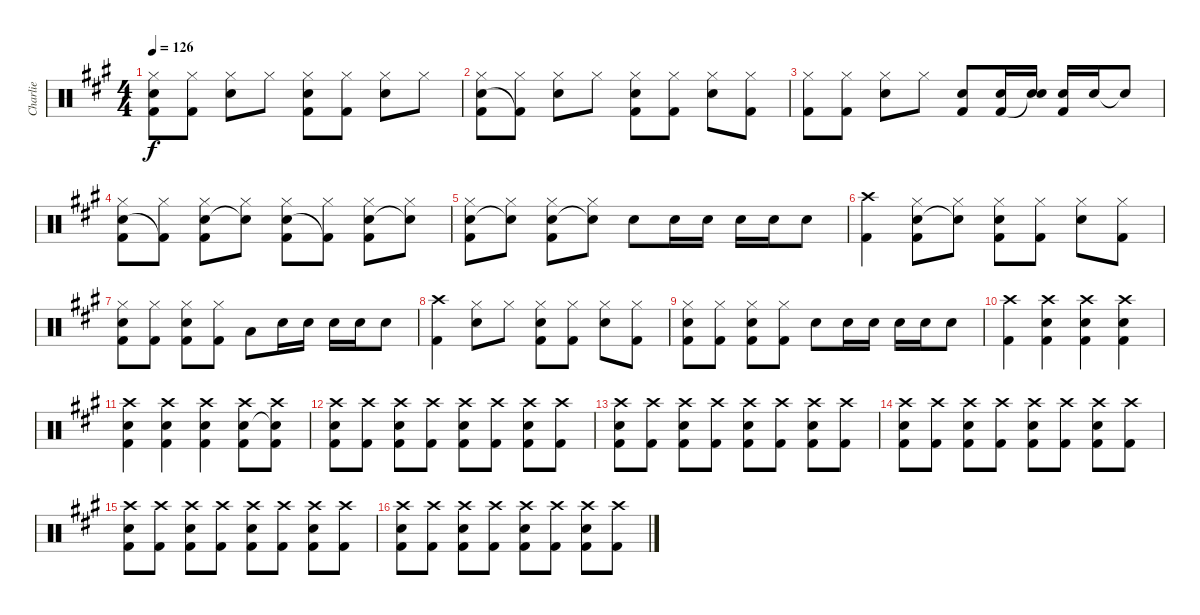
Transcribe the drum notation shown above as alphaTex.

\track ("Charlie" "Charlie") {instrument percussion}
\staff {score}
\articulation defaults
\ts (4 4)
\tempo 126
\clef neutral
\ks a
("Hi-Hat (closed)" "Snare (hit) 2" "Kick (hit) 2").8{dy f} ("Hi-Hat (closed)" "Kick (hit) 2").8 ("Hi-Hat (closed)" "Snare (hit) 2").8 "Hi-Hat (closed)".8 ("Hi-Hat (closed)" "Snare (hit) 2" "Kick (hit) 2").8 ("Hi-Hat (closed)" "Kick (hit) 2").8 ("Hi-Hat (closed)" "Snare (hit) 2").8 "Hi-Hat (closed)".8 |
("Hi-Hat (closed)" "Snare (hit) 2" "Kick (hit) 2").8 ("Hi-Hat (closed)" "Kick (hit) 2"{t}).8 ("Hi-Hat (closed)" "Snare (hit) 2").8 "Hi-Hat (closed)".8 ("Hi-Hat (closed)" "Snare (hit) 2" "Kick (hit) 2").8 ("Hi-Hat (closed)" "Kick (hit) 2").8 ("Hi-Hat (closed)" "Snare (hit) 2").8 ("Hi-Hat (closed)" "Kick (hit) 2").8 |
("Hi-Hat (closed)" "Kick (hit) 2").8 ("Hi-Hat (closed)" "Kick (hit) 2").8 ("Hi-Hat (closed)" "Snare (hit) 2").8 "Hi-Hat (closed)".8 ("Snare (hit) 2" "Kick (hit) 2").8 ("Snare (hit) 2" "Kick (hit) 2").16 ("Snare (hit) 2" "Snare (hit)"{t}).16 ("Snare (hit) 2" "Kick (hit) 2").16 "Snare (hit) 2".16 "Snare (hit)"{t}.8 |
("Hi-Hat (closed)" "Snare (hit) 2" "Kick (hit) 2").8 ("Hi-Hat (closed)" "Kick (hit) 2"{t}).8 ("Hi-Hat (closed)" "Snare (hit) 2" "Kick (hit) 2").8 ("Hi-Hat (closed)" "Snare (hit)"{t}).8 ("Hi-Hat (closed)" "Snare (hit) 2" "Kick (hit) 2").8 ("Hi-Hat (closed)" "Kick (hit) 2"{t}).8 ("Hi-Hat (closed)" "Snare (hit) 2" "Kick (hit) 2").8 ("Hi-Hat (closed)" "Snare (hit)"{t}).8 |
("Hi-Hat (closed)" "Snare (hit) 2" "Kick (hit) 2").8 ("Hi-Hat (closed)" "Snare (hit)"{t}).8 ("Hi-Hat (closed)" "Snare (hit) 2" "Kick (hit) 2").8 ("Hi-Hat (closed)" "Snare (hit)"{t}).8 "Snare (hit) 2".8 "Snare (hit) 2".16 "Snare (hit) 2".16 "Snare (hit) 2".16 "Snare (hit) 2".16 "Snare (hit) 2".8 |
("Crash high (hit)" "Kick (hit) 2").4 ("Hi-Hat (closed)" "Snare (hit) 2" "Kick (hit) 2").8 ("Hi-Hat (closed)" "Snare (hit)"{t}).8 ("Hi-Hat (closed)" "Snare (hit) 2" "Kick (hit) 2").8 ("Hi-Hat (closed)" "Kick (hit) 2").8 ("Hi-Hat (closed)" "Snare (hit) 2").8 ("Hi-Hat (closed)" "Kick (hit) 2").8 |
("Hi-Hat (closed)" "Snare (hit) 2" "Kick (hit) 2").8 ("Hi-Hat (closed)" "Kick (hit) 2").8 ("Hi-Hat (closed)" "Snare (hit) 2" "Kick (hit) 2").8 ("Hi-Hat (closed)" "Kick (hit) 2").8 "Low Tom (hit)".8 "Snare (hit) 2".16 "Snare (hit) 2".16 "Snare (hit) 2".16 "Snare (hit) 2".16 "Snare (hit) 2".8 |
("Crash high (hit)" "Kick (hit) 2").4 ("Hi-Hat (closed)" "Snare (hit) 2").8 "Hi-Hat (closed)".8 ("Hi-Hat (closed)" "Snare (hit) 2" "Kick (hit) 2").8 ("Hi-Hat (closed)" "Kick (hit) 2").8 ("Hi-Hat (closed)" "Snare (hit) 2").8 ("Hi-Hat (closed)" "Kick (hit) 2").8 |
("Hi-Hat (closed)" "Snare (hit) 2" "Kick (hit) 2").8 ("Hi-Hat (closed)" "Kick (hit) 2").8 ("Hi-Hat (closed)" "Snare (hit) 2" "Kick (hit) 2").8 ("Hi-Hat (closed)" "Kick (hit) 2").8 "Snare (hit) 2".8 "Snare (hit) 2".16 "Snare (hit) 2".16 "Snare (hit) 2".16 "Snare (hit) 2".16 "Snare (hit) 2".8 |
("Crash high (hit)" "Kick (hit) 2").4 ("Crash high (hit)" "Snare (hit) 2" "Kick (hit) 2").4 ("Crash high (hit)" "Snare (hit) 2" "Kick (hit) 2").4 ("Crash high (hit)" "Snare (hit) 2" "Kick (hit) 2").4 |
("Crash high (hit)" "Snare (hit) 2" "Kick (hit) 2").4 ("Crash high (hit)" "Snare (hit) 2" "Kick (hit) 2").4 ("Crash high (hit)" "Snare (hit) 2" "Kick (hit) 2").4 ("Crash high (hit)" "Snare (hit) 2" "Kick (hit) 2").8 ("Crash high (hit)" "Snare (hit)"{t} "Kick (hit) 2").8 |
("Crash high (hit)" "Snare (hit) 2" "Kick (hit) 2").8 ("Crash high (hit)" "Kick (hit) 2").8 ("Crash high (hit)" "Snare (hit) 2" "Kick (hit) 2").8 ("Crash high (hit)" "Kick (hit) 2").8 ("Crash high (hit)" "Snare (hit) 2" "Kick (hit) 2").8 ("Crash high (hit)" "Kick (hit) 2").8 ("Crash high (hit)" "Snare (hit) 2" "Kick (hit) 2").8 ("Crash high (hit)" "Kick (hit) 2").8 |
("Crash high (hit)" "Snare (hit) 2" "Kick (hit) 2").8 ("Crash high (hit)" "Kick (hit) 2").8 ("Crash high (hit)" "Snare (hit) 2" "Kick (hit) 2").8 ("Crash high (hit)" "Kick (hit) 2").8 ("Crash high (hit)" "Snare (hit) 2" "Kick (hit) 2").8 ("Crash high (hit)" "Kick (hit) 2").8 ("Crash high (hit)" "Snare (hit) 2" "Kick (hit) 2").8 ("Crash high (hit)" "Kick (hit) 2").8 |
("Crash high (hit)" "Snare (hit) 2" "Kick (hit) 2").8 ("Crash high (hit)" "Kick (hit) 2").8 ("Crash high (hit)" "Snare (hit) 2" "Kick (hit) 2").8 ("Crash high (hit)" "Kick (hit) 2").8 ("Crash high (hit)" "Snare (hit) 2" "Kick (hit) 2").8 ("Crash high (hit)" "Kick (hit) 2").8 ("Crash high (hit)" "Snare (hit) 2" "Kick (hit) 2").8 ("Crash high (hit)" "Kick (hit) 2").8 |
("Crash high (hit)" "Snare (hit) 2" "Kick (hit) 2").8 ("Crash high (hit)" "Kick (hit) 2").8 ("Crash high (hit)" "Snare (hit) 2" "Kick (hit) 2").8 ("Crash high (hit)" "Kick (hit) 2").8 ("Crash high (hit)" "Snare (hit) 2" "Kick (hit) 2").8 ("Crash high (hit)" "Kick (hit) 2").8 ("Crash high (hit)" "Snare (hit) 2" "Kick (hit) 2").8 ("Crash high (hit)" "Kick (hit) 2").8 |
("Crash high (hit)" "Snare (hit) 2" "Kick (hit) 2").8 ("Crash high (hit)" "Kick (hit) 2").8 ("Crash high (hit)" "Snare (hit) 2" "Kick (hit) 2").8 ("Crash high (hit)" "Kick (hit) 2").8 ("Crash high (hit)" "Snare (hit) 2" "Kick (hit) 2").8 ("Crash high (hit)" "Kick (hit) 2").8 ("Crash high (hit)" "Snare (hit) 2" "Kick (hit) 2").8 ("Crash high (hit)" "Kick (hit) 2").8
